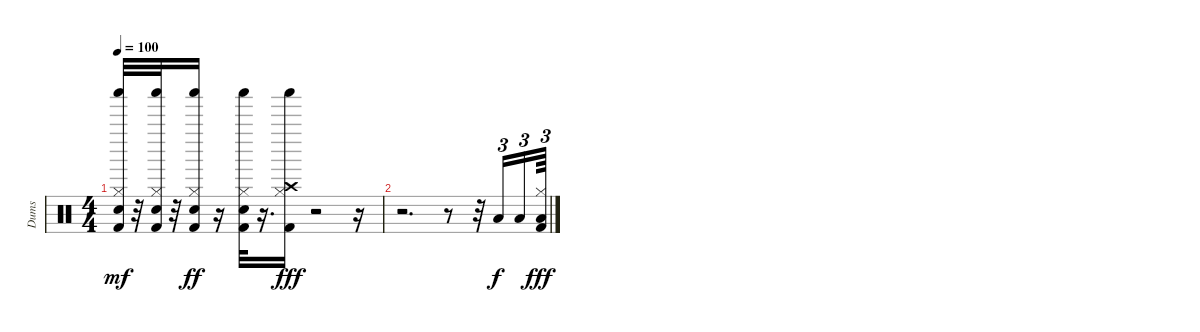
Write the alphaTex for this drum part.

\track ("Dums" "Dums") {instrument percussion}
\staff {score}
\articulation defaults
\ts (4 4)
\tempo 100
\clef neutral
\ks c
("Kick (hit) 2" "Hi-Hat (closed)" "Shaker (hit)" "Electric Snare (hit)").32{dy mf} r.32 ("Kick (hit) 2" "Hi-Hat (closed)" "Shaker (hit)" "Electric Snare (hit)").32 r.32 ("Kick (hit) 2" "Hi-Hat (closed)" "Shaker (hit)" "Electric Snare (hit)").16{dy ff} r.16 ("Kick (hit) 2" "Hi-Hat (closed)" "Shaker (hit)" "Electric Snare (hit)").32 r.16{d} ("Kick (hit) 2" "Hi-Hat (closed)" "Shaker (hit)" "Crash high (hit)").16{dy fff} r.2 r.16 |
r.2{d} r.8 r.32 "Low Tom (hit)".16{tu (3 2) dy f} "Low Tom (hit)".16{tu (3 2)} ("Low Floor Tom (hit)" "Kick (hit) 2" "Hi-Hat (closed)").64{tu (3 2) dy fff}
